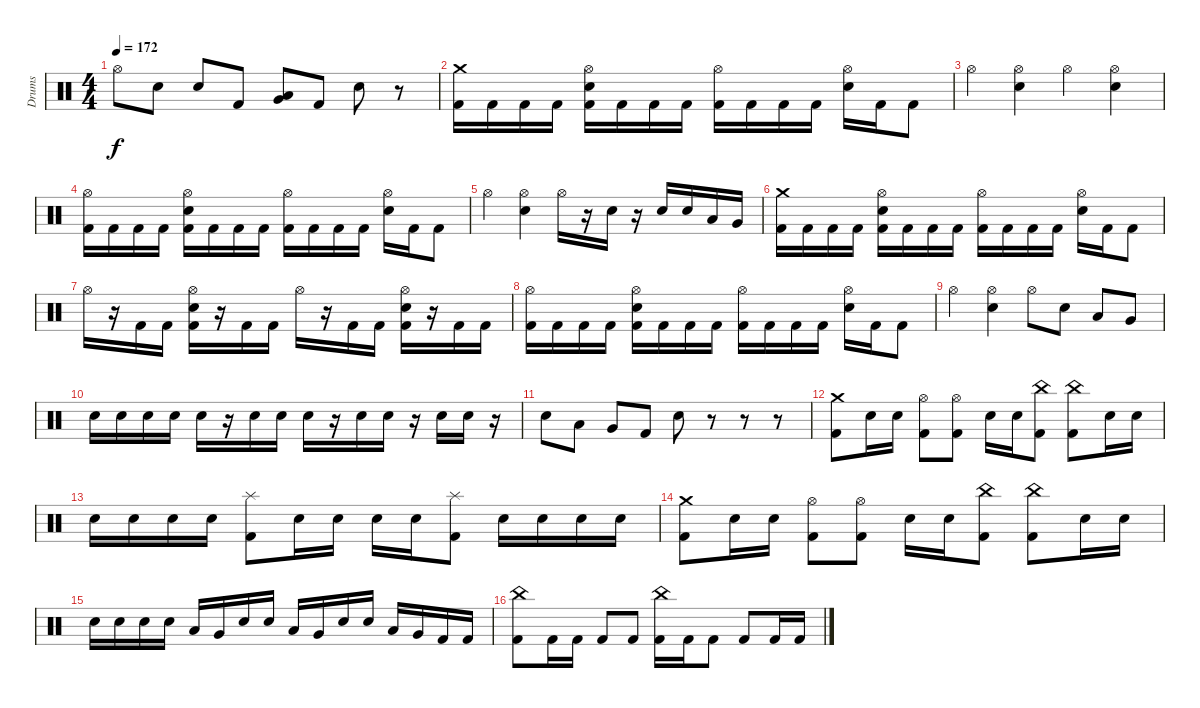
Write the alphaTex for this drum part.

\track ("Drums" "Drums") {instrument percussion}
\staff {score}
\articulation defaults
\ts (4 4)
\tempo 172
\clef neutral
\ks c "Hi-Hat (open)".8{dy f} "Electric Snare (hit)".8 "Electric Snare (hit)".8 "Kick (hit) 2".8
("Very Low Tom (hit)" "Low Tom (hit)").8 "Kick (hit) 2".8 "Electric Snare (hit)".8 r.8 |
("Crash medium (hit)" "Kick (hit) 2").16 "Kick (hit) 2".16 "Kick (hit) 2".16 "Kick (hit) 2".16 ("Hi-Hat (open)" "Electric Snare (hit)" "Kick (hit) 2").16 "Kick (hit) 2".16 "Kick (hit) 2".16 "Kick (hit) 2".16 ("Hi-Hat (open)" "Kick (hit) 2").16 "Kick (hit) 2".16 "Kick (hit) 2".16 "Kick (hit) 2".16 ("Hi-Hat (open)" "Electric Snare (hit)").16 "Kick (hit) 2".16 "Kick (hit) 2".8 |
"Hi-Hat (open)".4 ("Hi-Hat (open)" "Electric Snare (hit)").4 "Hi-Hat (open)".4 ("Hi-Hat (open)" "Electric Snare (hit)").4 |
("Hi-Hat (open)" "Kick (hit) 2").16 "Kick (hit) 2".16 "Kick (hit) 2".16 "Kick (hit) 2".16 ("Hi-Hat (open)" "Electric Snare (hit)" "Kick (hit) 2").16 "Kick (hit) 2".16 "Kick (hit) 2".16 "Kick (hit) 2".16 ("Hi-Hat (open)" "Kick (hit) 2").16 "Kick (hit) 2".16 "Kick (hit) 2".16 "Kick (hit) 2".16 ("Hi-Hat (open)" "Electric Snare (hit)").16 "Kick (hit) 2".16 "Kick (hit) 2".8 |
"Hi-Hat (open)".4 ("Hi-Hat (open)" "Electric Snare (hit)").4 "Hi-Hat (open)".16 r.16 "Electric Snare (hit)".16 r.16 "Electric Snare (hit)".16 "Electric Snare (hit)".16 "Low Tom (hit)".16 "Very Low Tom (hit)".16 |
("Crash medium (hit)" "Kick (hit) 2").16 "Kick (hit) 2".16 "Kick (hit) 2".16 "Kick (hit) 2".16 ("Hi-Hat (open)" "Electric Snare (hit)" "Kick (hit) 2").16 "Kick (hit) 2".16 "Kick (hit) 2".16 "Kick (hit) 2".16 ("Hi-Hat (open)" "Kick (hit) 2").16 "Kick (hit) 2".16 "Kick (hit) 2".16 "Kick (hit) 2".16 ("Hi-Hat (open)" "Electric Snare (hit)").16 "Kick (hit) 2".16 "Kick (hit) 2".8 |
"Hi-Hat (open)".16 r.16 "Kick (hit) 2".16 "Kick (hit) 2".16 ("Hi-Hat (open)" "Electric Snare (hit)" "Kick (hit) 2").16 r.16 "Kick (hit) 2".16 "Kick (hit) 2".16 "Hi-Hat (open)".16 r.16 "Kick (hit) 2".16 "Kick (hit) 2".16 ("Hi-Hat (open)" "Electric Snare (hit)" "Kick (hit) 2").16 r.16 "Kick (hit) 2".16 "Kick (hit) 2".16 |
("Hi-Hat (open)" "Kick (hit) 2").16 "Kick (hit) 2".16 "Kick (hit) 2".16 "Kick (hit) 2".16 ("Hi-Hat (open)" "Electric Snare (hit)" "Kick (hit) 2").16 "Kick (hit) 2".16 "Kick (hit) 2".16 "Kick (hit) 2".16 ("Hi-Hat (open)" "Kick (hit) 2").16 "Kick (hit) 2".16 "Kick (hit) 2".16 "Kick (hit) 2".16 ("Hi-Hat (open)" "Electric Snare (hit)").16 "Kick (hit) 2".16 "Kick (hit) 2".8 |
"Hi-Hat (open)".4 ("Hi-Hat (open)" "Electric Snare (hit)").4 "Hi-Hat (open)".8 "Electric Snare (hit)".8 "Low Tom (hit)".8 "Very Low Tom (hit)".8 |
"Electric Snare (hit)".16 "Electric Snare (hit)".16 "Electric Snare (hit)".16 "Electric Snare (hit)".16 "Electric Snare (hit)".16 r.16 "Electric Snare (hit)".16 "Electric Snare (hit)".16 "Electric Snare (hit)".16 r.16 "Electric Snare (hit)".16 "Electric Snare (hit)".16 r.16 "Electric Snare (hit)".16 "Electric Snare (hit)".16 r.16 |
"Electric Snare (hit)".8 "Low Tom (hit)".8 "Very Low Tom (hit)".8 "Kick (hit) 2".8 "Electric Snare (hit)".8 r.8 r.8 r.8 |
("Crash medium (hit)" "Kick (hit) 2").8 "Electric Snare (hit)".16 "Electric Snare (hit)".16 ("Hi-Hat (open)" "Kick (hit) 2").8 ("Hi-Hat (open)" "Kick (hit) 2").8 "Electric Snare (hit)".16 "Electric Snare (hit)".16 ("China (hit)" "Kick (hit) 2").8 ("China (hit)" "Kick (hit) 2").8 "Electric Snare (hit)".16 "Electric Snare (hit)".16 |
"Electric Snare (hit)".16 "Electric Snare (hit)".16 "Electric Snare (hit)".16 "Electric Snare (hit)".16 ("Splash (hit)" "Kick (hit) 2").8 "Electric Snare (hit)".16 "Electric Snare (hit)".16 "Electric Snare (hit)".16 "Electric Snare (hit)".16 ("Splash (hit)" "Kick (hit) 2").8 "Electric Snare (hit)".16 "Electric Snare (hit)".16 "Electric Snare (hit)".16 "Electric Snare (hit)".16 |
("Crash medium (hit)" "Kick (hit) 2").8 "Electric Snare (hit)".16 "Electric Snare (hit)".16 ("Hi-Hat (open)" "Kick (hit) 2").8 ("Hi-Hat (open)" "Kick (hit) 2").8 "Electric Snare (hit)".16 "Electric Snare (hit)".16 ("China (hit)" "Kick (hit) 2").8 ("China (hit)" "Kick (hit) 2").8 "Electric Snare (hit)".16 "Electric Snare (hit)".16 |
"Electric Snare (hit)".16 "Electric Snare (hit)".16 "Electric Snare (hit)".16 "Electric Snare (hit)".16 "Low Tom (hit)".16 "Very Low Tom (hit)".16 "Electric Snare (hit)".16 "Electric Snare (hit)".16 "Low Tom (hit)".16 "Very Low Tom (hit)".16 "Electric Snare (hit)".16 "Electric Snare (hit)".16 "Low Tom (hit)".16 "Very Low Tom (hit)".16 "Kick (hit) 2".16 "Kick (hit) 2".16 |
("China (hit)" "Kick (hit) 2").8 "Kick (hit) 2".16 "Kick (hit) 2".16 "Kick (hit) 2".8 "Kick (hit) 2".8 ("China (hit)" "Kick (hit) 2").16 "Kick (hit) 2".16 "Kick (hit) 2".8 "Kick (hit) 2".8 "Kick (hit) 2".16 "Kick (hit) 2".16
